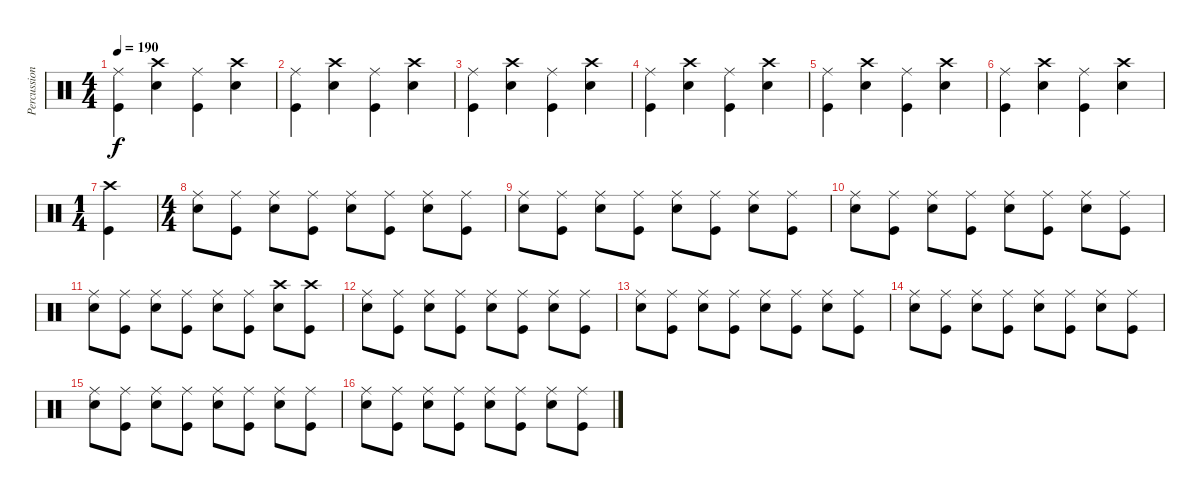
\track ("Percussioni" "Percussion") {instrument percussion}
\staff {score}
\articulation defaults
\ts (4 4)
\tempo 190
\clef neutral
\ks c
("Ride (middle)" "Kick (hit)").4{dy f} ("Crash high (hit)" "Electric Snare (hit)").4 ("Ride (middle)" "Kick (hit)").4 ("Crash high (hit)" "Electric Snare (hit)").4 |
("Ride (middle)" "Kick (hit)").4 ("Crash high (hit)" "Electric Snare (hit)").4 ("Ride (middle)" "Kick (hit)").4 ("Crash high (hit)" "Electric Snare (hit)").4 |
("Ride (middle)" "Kick (hit)").4 ("Crash high (hit)" "Electric Snare (hit)").4 ("Ride (middle)" "Kick (hit)").4 ("Crash high (hit)" "Electric Snare (hit)").4 |
("Ride (middle)" "Kick (hit)").4 ("Crash high (hit)" "Electric Snare (hit)").4 ("Ride (middle)" "Kick (hit)").4 ("Crash high (hit)" "Electric Snare (hit)").4 |
("Ride (middle)" "Kick (hit)").4 ("Crash high (hit)" "Electric Snare (hit)").4 ("Ride (middle)" "Kick (hit)").4 ("Crash high (hit)" "Electric Snare (hit)").4 |
("Ride (middle)" "Kick (hit)").4 ("Crash high (hit)" "Electric Snare (hit)").4 ("Ride (middle)" "Kick (hit)").4 ("Crash high (hit)" "Electric Snare (hit)").4 |
\ts (1 4)
("Crash high (hit)" "Kick (hit)").4 |
\ts (4 4)
("Ride (middle)" "Electric Snare (hit)").8 ("Ride (middle)" "Kick (hit)").8 ("Ride (middle)" "Electric Snare (hit)").8 ("Ride (middle)" "Kick (hit)").8 ("Ride (middle)" "Electric Snare (hit)").8 ("Ride (middle)" "Kick (hit)").8 ("Ride (middle)" "Electric Snare (hit)").8 ("Ride (middle)" "Kick (hit)").8 |
("Ride (middle)" "Electric Snare (hit)").8 ("Ride (middle)" "Kick (hit)").8 ("Ride (middle)" "Electric Snare (hit)").8 ("Ride (middle)" "Kick (hit)").8 ("Ride (middle)" "Electric Snare (hit)").8 ("Ride (middle)" "Kick (hit)").8 ("Ride (middle)" "Electric Snare (hit)").8 ("Ride (middle)" "Kick (hit)").8 |
("Ride (middle)" "Electric Snare (hit)").8 ("Ride (middle)" "Kick (hit)").8 ("Ride (middle)" "Electric Snare (hit)").8 ("Ride (middle)" "Kick (hit)").8 ("Ride (middle)" "Electric Snare (hit)").8 ("Ride (middle)" "Kick (hit)").8 ("Ride (middle)" "Electric Snare (hit)").8 ("Ride (middle)" "Kick (hit)").8 |
("Ride (middle)" "Electric Snare (hit)").8 ("Ride (middle)" "Kick (hit)").8 ("Ride (middle)" "Electric Snare (hit)").8 ("Ride (middle)" "Kick (hit)").8 ("Ride (middle)" "Electric Snare (hit)").8 ("Ride (middle)" "Kick (hit)").8 ("Crash high (hit)" "Electric Snare (hit)").8 ("Crash high (hit)" "Kick (hit)").8 |
("Ride (middle)" "Electric Snare (hit)").8 ("Ride (middle)" "Kick (hit)").8 ("Ride (middle)" "Electric Snare (hit)").8 ("Ride (middle)" "Kick (hit)").8 ("Ride (middle)" "Electric Snare (hit)").8 ("Ride (middle)" "Kick (hit)").8 ("Ride (middle)" "Electric Snare (hit)").8 ("Ride (middle)" "Kick (hit)").8 |
("Ride (middle)" "Electric Snare (hit)").8 ("Ride (middle)" "Kick (hit)").8 ("Ride (middle)" "Electric Snare (hit)").8 ("Ride (middle)" "Kick (hit)").8 ("Ride (middle)" "Electric Snare (hit)").8 ("Ride (middle)" "Kick (hit)").8 ("Ride (middle)" "Electric Snare (hit)").8 ("Ride (middle)" "Kick (hit)").8 |
("Ride (middle)" "Electric Snare (hit)").8 ("Ride (middle)" "Kick (hit)").8 ("Ride (middle)" "Electric Snare (hit)").8 ("Ride (middle)" "Kick (hit)").8 ("Ride (middle)" "Electric Snare (hit)").8 ("Ride (middle)" "Kick (hit)").8 ("Ride (middle)" "Electric Snare (hit)").8 ("Ride (middle)" "Kick (hit)").8 |
("Ride (middle)" "Electric Snare (hit)").8 ("Ride (middle)" "Kick (hit)").8 ("Ride (middle)" "Electric Snare (hit)").8 ("Ride (middle)" "Kick (hit)").8 ("Ride (middle)" "Electric Snare (hit)").8 ("Ride (middle)" "Kick (hit)").8 ("Ride (middle)" "Electric Snare (hit)").8 ("Ride (middle)" "Kick (hit)").8 |
("Ride (middle)" "Electric Snare (hit)").8 ("Ride (middle)" "Kick (hit)").8 ("Ride (middle)" "Electric Snare (hit)").8 ("Ride (middle)" "Kick (hit)").8 ("Ride (middle)" "Electric Snare (hit)").8 ("Ride (middle)" "Kick (hit)").8 ("Ride (middle)" "Electric Snare (hit)").8 ("Ride (middle)" "Kick (hit)").8
